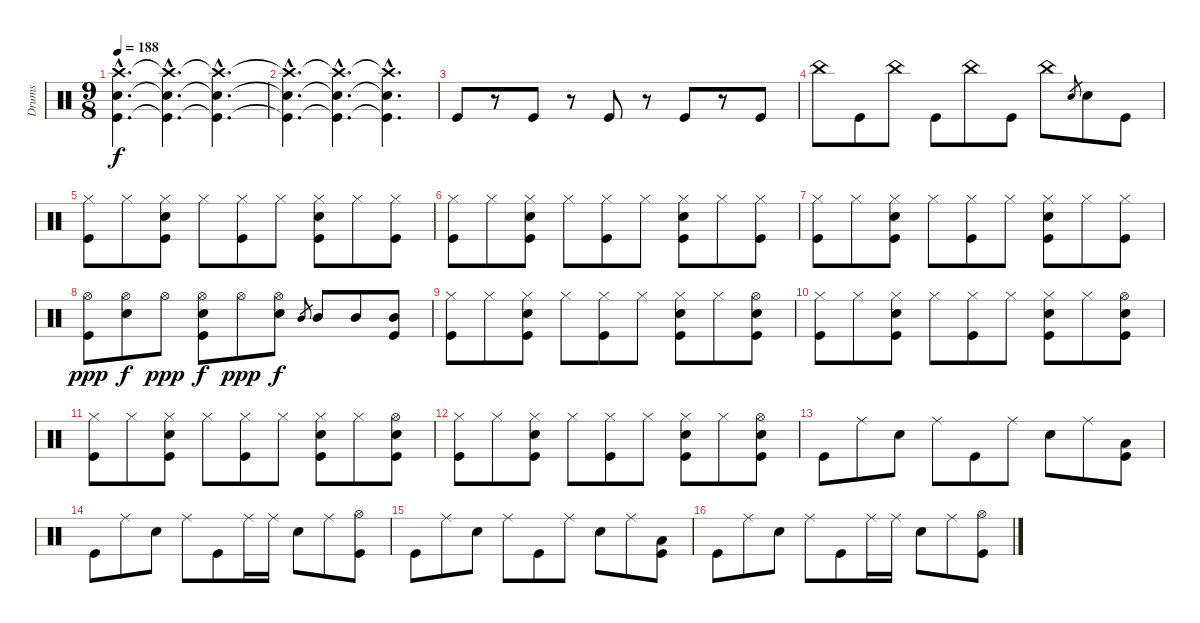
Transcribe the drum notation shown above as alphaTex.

\track ("Drums" "Drums") {instrument percussion}
\staff {score}
\articulation defaults
\ts (9 8)
\tempo 188
\clef neutral
\ks c
("Crash high (hit)"{hac} "Snare (hit) 2"{hac} "Kick (hit)"{hac}).4{d dy f} ("Crash high (hit)"{hac t} "Snare (hit) 2"{hac t} "Kick (hit)"{hac t}).4{d} ("Crash high (hit)"{hac t} "Snare (hit) 2"{hac t} "Kick (hit)"{hac t}).4{d} |
("Crash high (hit)"{hac t} "Snare (hit) 2"{hac t} "Kick (hit)"{hac t}).4{d} ("Crash high (hit)"{hac t} "Snare (hit) 2"{hac t} "Kick (hit)"{hac t}).4{d} ("Crash high (hit)"{hac t} "Snare (hit) 2"{hac t} "Kick (hit)"{hac t}).4{d} |
"Kick (hit)".8 r.8 "Kick (hit)".8 r.8 "Kick (hit)".8 r.8 "Kick (hit)".8 r.8 "Kick (hit)".8 |
"China (hit)".8 "Kick (hit)".8 "China (hit)".8 "Kick (hit)".8 "China (hit)".8 "Kick (hit)".8 "China (hit)".8 "Snare (hit) 2".8{gr} "Snare (hit) 2".8 "Kick (hit)".8 |
("Hi-Hat (closed)" "Kick (hit)").8 "Hi-Hat (closed)".8 ("Hi-Hat (closed)" "Snare (hit) 2" "Kick (hit)").8 "Hi-Hat (closed)".8 ("Hi-Hat (closed)" "Kick (hit)").8 "Hi-Hat (closed)".8 ("Hi-Hat (closed)" "Snare (hit) 2" "Kick (hit)").8 "Hi-Hat (closed)".8 ("Hi-Hat (closed)" "Kick (hit)").8 |
("Hi-Hat (closed)" "Kick (hit)").8 "Hi-Hat (closed)".8 ("Hi-Hat (closed)" "Snare (hit) 2" "Kick (hit)").8 "Hi-Hat (closed)".8 ("Hi-Hat (closed)" "Kick (hit)").8 "Hi-Hat (closed)".8 ("Hi-Hat (closed)" "Snare (hit) 2" "Kick (hit)").8 "Hi-Hat (closed)".8 ("Hi-Hat (closed)" "Kick (hit)").8 |
("Hi-Hat (closed)" "Kick (hit)").8 "Hi-Hat (closed)".8 ("Hi-Hat (closed)" "Snare (hit) 2" "Kick (hit)").8 "Hi-Hat (closed)".8 ("Hi-Hat (closed)" "Kick (hit)").8 "Hi-Hat (closed)".8 ("Hi-Hat (closed)" "Snare (hit) 2" "Kick (hit)").8 "Hi-Hat (closed)".8 ("Hi-Hat (closed)" "Kick (hit)").8 |
("Hi-Hat (open)" "Kick (hit)").8{dy ppp} ("Hi-Hat (open)" "Snare (hit) 2").8{dy f} "Hi-Hat (open)".8{dy ppp} ("Hi-Hat (open)" "Snare (hit) 2" "Kick (hit)").8{dy f} "Hi-Hat (open)".8{dy ppp} ("Hi-Hat (open)" "Snare (hit) 2").8{dy f} "Mid Tom (hit)".8{gr} "Mid Tom (hit)".8 "Mid Tom (hit)".8 ("Mid Tom (hit)" "Kick (hit)").8 |
("Hi-Hat (closed)" "Kick (hit)").8 "Hi-Hat (closed)".8 ("Hi-Hat (closed)" "Snare (hit) 2" "Kick (hit)").8 "Hi-Hat (closed)".8 ("Hi-Hat (closed)" "Kick (hit)").8 "Hi-Hat (closed)".8 ("Hi-Hat (closed)" "Snare (hit) 2" "Kick (hit)").8 "Hi-Hat (closed)".8 ("Hi-Hat (open)" "Snare (hit) 2" "Kick (hit)").8 |
("Hi-Hat (closed)" "Kick (hit)").8 "Hi-Hat (closed)".8 ("Hi-Hat (closed)" "Snare (hit) 2" "Kick (hit)").8 "Hi-Hat (closed)".8 ("Hi-Hat (closed)" "Kick (hit)").8 "Hi-Hat (closed)".8 ("Hi-Hat (closed)" "Snare (hit) 2" "Kick (hit)").8 "Hi-Hat (closed)".8 ("Hi-Hat (open)" "Snare (hit) 2" "Kick (hit)").8 |
("Hi-Hat (closed)" "Kick (hit)").8 "Hi-Hat (closed)".8 ("Hi-Hat (closed)" "Snare (hit) 2" "Kick (hit)").8 "Hi-Hat (closed)".8 ("Hi-Hat (closed)" "Kick (hit)").8 "Hi-Hat (closed)".8 ("Hi-Hat (closed)" "Snare (hit) 2" "Kick (hit)").8 "Hi-Hat (closed)".8 ("Hi-Hat (open)" "Snare (hit) 2" "Kick (hit)").8 |
("Hi-Hat (closed)" "Kick (hit)").8 "Hi-Hat (closed)".8 ("Hi-Hat (closed)" "Snare (hit) 2" "Kick (hit)").8 "Hi-Hat (closed)".8 ("Hi-Hat (closed)" "Kick (hit)").8 "Hi-Hat (closed)".8 ("Hi-Hat (closed)" "Snare (hit) 2" "Kick (hit)").8 "Hi-Hat (closed)".8 ("Hi-Hat (open)" "Snare (hit) 2" "Kick (hit)").8 |
"Kick (hit)".8 "Ride (middle)".8 "Snare (hit) 2".8 "Ride (middle)".8 "Kick (hit)".8 "Ride (middle)".8 "Snare (hit) 2".8 "Ride (middle)".8 ("Low Tom (hit)" "Kick (hit)").8 |
"Kick (hit)".8 "Ride (middle)".8 "Snare (hit) 2".8 "Ride (middle)".8 "Kick (hit)".8 "Ride (middle)".16 "Ride (middle)".16 "Snare (hit) 2".8 "Ride (middle)".8 ("Hi-Hat (open)" "Kick (hit)").8 |
"Kick (hit)".8 "Ride (middle)".8 "Snare (hit) 2".8 "Ride (middle)".8 "Kick (hit)".8 "Ride (middle)".8 "Snare (hit) 2".8 "Ride (middle)".8 ("Low Tom (hit)" "Kick (hit)").8 |
"Kick (hit)".8 "Ride (middle)".8 "Snare (hit) 2".8 "Ride (middle)".8 "Kick (hit)".8 "Ride (middle)".16 "Ride (middle)".16 "Snare (hit) 2".8 "Ride (middle)".8 ("Hi-Hat (open)" "Kick (hit)").8
